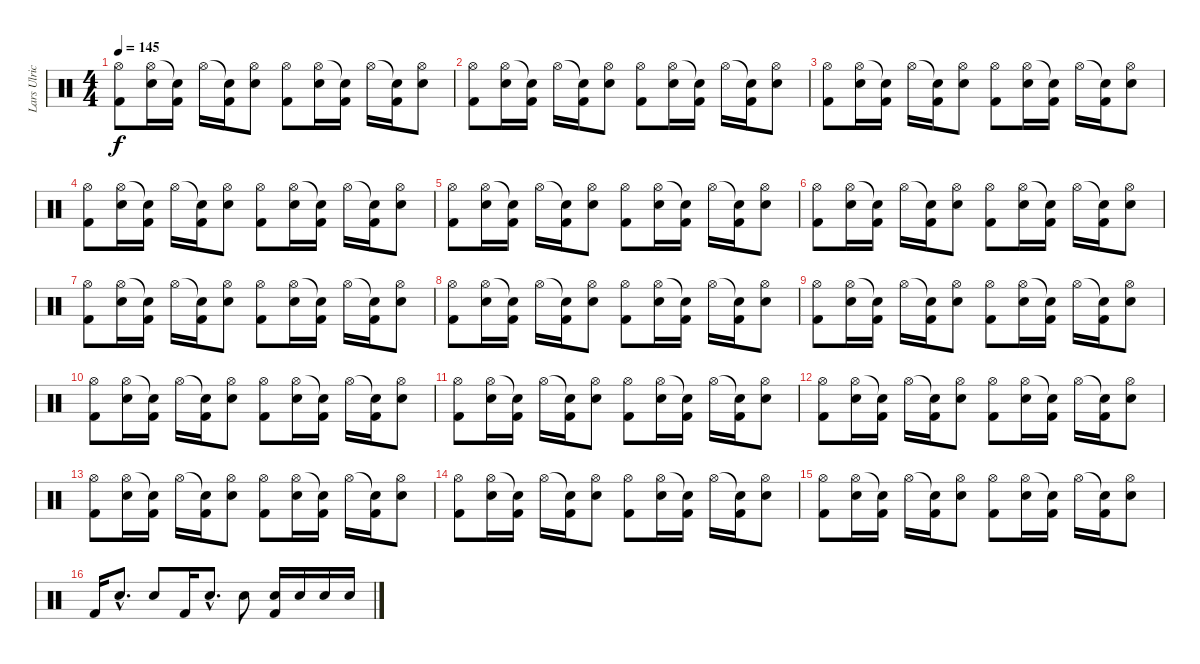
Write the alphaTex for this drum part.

\track ("Lars Ulrich" "Lars Ulric") {instrument percussion}
\staff {score}
\articulation defaults
\ts (4 4)
\tempo 145
\clef neutral
\ks c
("Hi-Hat (open)" "Kick (hit) 2").8{dy f} ("Hi-Hat (open)" "Electric Snare (hit)").16 ("Snare (hit)"{t} "Kick (hit) 2").16 "Hi-Hat (open)".16 ("Snare (hit)"{t} "Kick (hit) 2").16 ("Hi-Hat (open)" "Electric Snare (hit)").8 ("Hi-Hat (open)" "Kick (hit) 2").8 ("Hi-Hat (open)" "Electric Snare (hit)").16 ("Snare (hit)"{t} "Kick (hit) 2").16 "Hi-Hat (open)".16 ("Snare (hit)"{t} "Kick (hit) 2").16 ("Hi-Hat (open)" "Electric Snare (hit)").8 |
("Hi-Hat (open)" "Kick (hit) 2").8 ("Hi-Hat (open)" "Electric Snare (hit)").16 ("Snare (hit)"{t} "Kick (hit) 2").16 "Hi-Hat (open)".16 ("Snare (hit)"{t} "Kick (hit) 2").16 ("Hi-Hat (open)" "Electric Snare (hit)").8 ("Hi-Hat (open)" "Kick (hit) 2").8 ("Hi-Hat (open)" "Electric Snare (hit)").16 ("Snare (hit)"{t} "Kick (hit) 2").16 "Hi-Hat (open)".16 ("Snare (hit)"{t} "Kick (hit) 2").16 ("Hi-Hat (open)" "Electric Snare (hit)").8 |
("Hi-Hat (open)" "Kick (hit) 2").8 ("Hi-Hat (open)" "Electric Snare (hit)").16 ("Snare (hit)"{t} "Kick (hit) 2").16 "Hi-Hat (open)".16 ("Snare (hit)"{t} "Kick (hit) 2").16 ("Hi-Hat (open)" "Electric Snare (hit)").8 ("Hi-Hat (open)" "Kick (hit) 2").8 ("Hi-Hat (open)" "Electric Snare (hit)").16 ("Snare (hit)"{t} "Kick (hit) 2").16 "Hi-Hat (open)".16 ("Snare (hit)"{t} "Kick (hit) 2").16 ("Hi-Hat (open)" "Electric Snare (hit)").8 |
("Hi-Hat (open)" "Kick (hit) 2").8 ("Hi-Hat (open)" "Electric Snare (hit)").16 ("Snare (hit)"{t} "Kick (hit) 2").16 "Hi-Hat (open)".16 ("Snare (hit)"{t} "Kick (hit) 2").16 ("Hi-Hat (open)" "Electric Snare (hit)").8 ("Hi-Hat (open)" "Kick (hit) 2").8 ("Hi-Hat (open)" "Electric Snare (hit)").16 ("Snare (hit)"{t} "Kick (hit) 2").16 "Hi-Hat (open)".16 ("Snare (hit)"{t} "Kick (hit) 2").16 ("Hi-Hat (open)" "Electric Snare (hit)").8 |
("Hi-Hat (open)" "Kick (hit) 2").8 ("Hi-Hat (open)" "Electric Snare (hit)").16 ("Snare (hit)"{t} "Kick (hit) 2").16 "Hi-Hat (open)".16 ("Snare (hit)"{t} "Kick (hit) 2").16 ("Hi-Hat (open)" "Electric Snare (hit)").8 ("Hi-Hat (open)" "Kick (hit) 2").8 ("Hi-Hat (open)" "Electric Snare (hit)").16 ("Snare (hit)"{t} "Kick (hit) 2").16 "Hi-Hat (open)".16 ("Snare (hit)"{t} "Kick (hit) 2").16 ("Hi-Hat (open)" "Electric Snare (hit)").8 |
("Hi-Hat (open)" "Kick (hit) 2").8 ("Hi-Hat (open)" "Electric Snare (hit)").16 ("Snare (hit)"{t} "Kick (hit) 2").16 "Hi-Hat (open)".16 ("Snare (hit)"{t} "Kick (hit) 2").16 ("Hi-Hat (open)" "Electric Snare (hit)").8 ("Hi-Hat (open)" "Kick (hit) 2").8 ("Hi-Hat (open)" "Electric Snare (hit)").16 ("Snare (hit)"{t} "Kick (hit) 2").16 "Hi-Hat (open)".16 ("Snare (hit)"{t} "Kick (hit) 2").16 ("Hi-Hat (open)" "Electric Snare (hit)").8 |
("Hi-Hat (open)" "Kick (hit) 2").8 ("Hi-Hat (open)" "Electric Snare (hit)").16 ("Snare (hit)"{t} "Kick (hit) 2").16 "Hi-Hat (open)".16 ("Snare (hit)"{t} "Kick (hit) 2").16 ("Hi-Hat (open)" "Electric Snare (hit)").8 ("Hi-Hat (open)" "Kick (hit) 2").8 ("Hi-Hat (open)" "Electric Snare (hit)").16 ("Snare (hit)"{t} "Kick (hit) 2").16 "Hi-Hat (open)".16 ("Snare (hit)"{t} "Kick (hit) 2").16 ("Hi-Hat (open)" "Electric Snare (hit)").8 |
("Hi-Hat (open)" "Kick (hit) 2").8 ("Hi-Hat (open)" "Electric Snare (hit)").16 ("Snare (hit)"{t} "Kick (hit) 2").16 "Hi-Hat (open)".16 ("Snare (hit)"{t} "Kick (hit) 2").16 ("Hi-Hat (open)" "Electric Snare (hit)").8 ("Hi-Hat (open)" "Kick (hit) 2").8 ("Hi-Hat (open)" "Electric Snare (hit)").16 ("Snare (hit)"{t} "Kick (hit) 2").16 "Hi-Hat (open)".16 ("Snare (hit)"{t} "Kick (hit) 2").16 ("Hi-Hat (open)" "Electric Snare (hit)").8 |
("Hi-Hat (open)" "Kick (hit) 2").8 ("Hi-Hat (open)" "Electric Snare (hit)").16 ("Snare (hit)"{t} "Kick (hit) 2").16 "Hi-Hat (open)".16 ("Snare (hit)"{t} "Kick (hit) 2").16 ("Hi-Hat (open)" "Electric Snare (hit)").8 ("Hi-Hat (open)" "Kick (hit) 2").8 ("Hi-Hat (open)" "Electric Snare (hit)").16 ("Snare (hit)"{t} "Kick (hit) 2").16 "Hi-Hat (open)".16 ("Snare (hit)"{t} "Kick (hit) 2").16 ("Hi-Hat (open)" "Electric Snare (hit)").8 |
("Hi-Hat (open)" "Kick (hit) 2").8 ("Hi-Hat (open)" "Electric Snare (hit)").16 ("Snare (hit)"{t} "Kick (hit) 2").16 "Hi-Hat (open)".16 ("Snare (hit)"{t} "Kick (hit) 2").16 ("Hi-Hat (open)" "Electric Snare (hit)").8 ("Hi-Hat (open)" "Kick (hit) 2").8 ("Hi-Hat (open)" "Electric Snare (hit)").16 ("Snare (hit)"{t} "Kick (hit) 2").16 "Hi-Hat (open)".16 ("Snare (hit)"{t} "Kick (hit) 2").16 ("Hi-Hat (open)" "Electric Snare (hit)").8 |
("Hi-Hat (open)" "Kick (hit) 2").8 ("Hi-Hat (open)" "Electric Snare (hit)").16 ("Snare (hit)"{t} "Kick (hit) 2").16 "Hi-Hat (open)".16 ("Snare (hit)"{t} "Kick (hit) 2").16 ("Hi-Hat (open)" "Electric Snare (hit)").8 ("Hi-Hat (open)" "Kick (hit) 2").8 ("Hi-Hat (open)" "Electric Snare (hit)").16 ("Snare (hit)"{t} "Kick (hit) 2").16 "Hi-Hat (open)".16 ("Snare (hit)"{t} "Kick (hit) 2").16 ("Hi-Hat (open)" "Electric Snare (hit)").8 |
("Hi-Hat (open)" "Kick (hit) 2").8 ("Hi-Hat (open)" "Electric Snare (hit)").16 ("Snare (hit)"{t} "Kick (hit) 2").16 "Hi-Hat (open)".16 ("Snare (hit)"{t} "Kick (hit) 2").16 ("Hi-Hat (open)" "Electric Snare (hit)").8 ("Hi-Hat (open)" "Kick (hit) 2").8 ("Hi-Hat (open)" "Electric Snare (hit)").16 ("Snare (hit)"{t} "Kick (hit) 2").16 "Hi-Hat (open)".16 ("Snare (hit)"{t} "Kick (hit) 2").16 ("Hi-Hat (open)" "Electric Snare (hit)").8 |
("Hi-Hat (open)" "Kick (hit) 2").8 ("Hi-Hat (open)" "Electric Snare (hit)").16 ("Snare (hit)"{t} "Kick (hit) 2").16 "Hi-Hat (open)".16 ("Snare (hit)"{t} "Kick (hit) 2").16 ("Hi-Hat (open)" "Electric Snare (hit)").8 ("Hi-Hat (open)" "Kick (hit) 2").8 ("Hi-Hat (open)" "Electric Snare (hit)").16 ("Snare (hit)"{t} "Kick (hit) 2").16 "Hi-Hat (open)".16 ("Snare (hit)"{t} "Kick (hit) 2").16 ("Hi-Hat (open)" "Electric Snare (hit)").8 |
("Hi-Hat (open)" "Kick (hit) 2").8 ("Hi-Hat (open)" "Electric Snare (hit)").16 ("Snare (hit)"{t} "Kick (hit) 2").16 "Hi-Hat (open)".16 ("Snare (hit)"{t} "Kick (hit) 2").16 ("Hi-Hat (open)" "Electric Snare (hit)").8 ("Hi-Hat (open)" "Kick (hit) 2").8 ("Hi-Hat (open)" "Electric Snare (hit)").16 ("Snare (hit)"{t} "Kick (hit) 2").16 "Hi-Hat (open)".16 ("Snare (hit)"{t} "Kick (hit) 2").16 ("Hi-Hat (open)" "Electric Snare (hit)").8 |
("Hi-Hat (open)" "Kick (hit) 2").8 ("Hi-Hat (open)" "Electric Snare (hit)").16 ("Snare (hit)"{t} "Kick (hit) 2").16 "Hi-Hat (open)".16 ("Snare (hit)"{t} "Kick (hit) 2").16 ("Hi-Hat (open)" "Electric Snare (hit)").8 ("Hi-Hat (open)" "Kick (hit) 2").8 ("Hi-Hat (open)" "Electric Snare (hit)").16 ("Snare (hit)"{t} "Kick (hit) 2").16 "Hi-Hat (open)".16 ("Snare (hit)"{t} "Kick (hit) 2").16 ("Hi-Hat (open)" "Electric Snare (hit)").8 |
"Kick (hit) 2".16 "Electric Snare (hit)"{hac}.8{d} "Electric Snare (hit)".8 "Kick (hit) 2".16 "Electric Snare (hit)"{hac}.8{d} "Electric Snare (hit)".8 ("Electric Snare (hit)" "Kick (hit) 2").16 "Electric Snare (hit)".16 "Electric Snare (hit)".16 "Electric Snare (hit)".16
